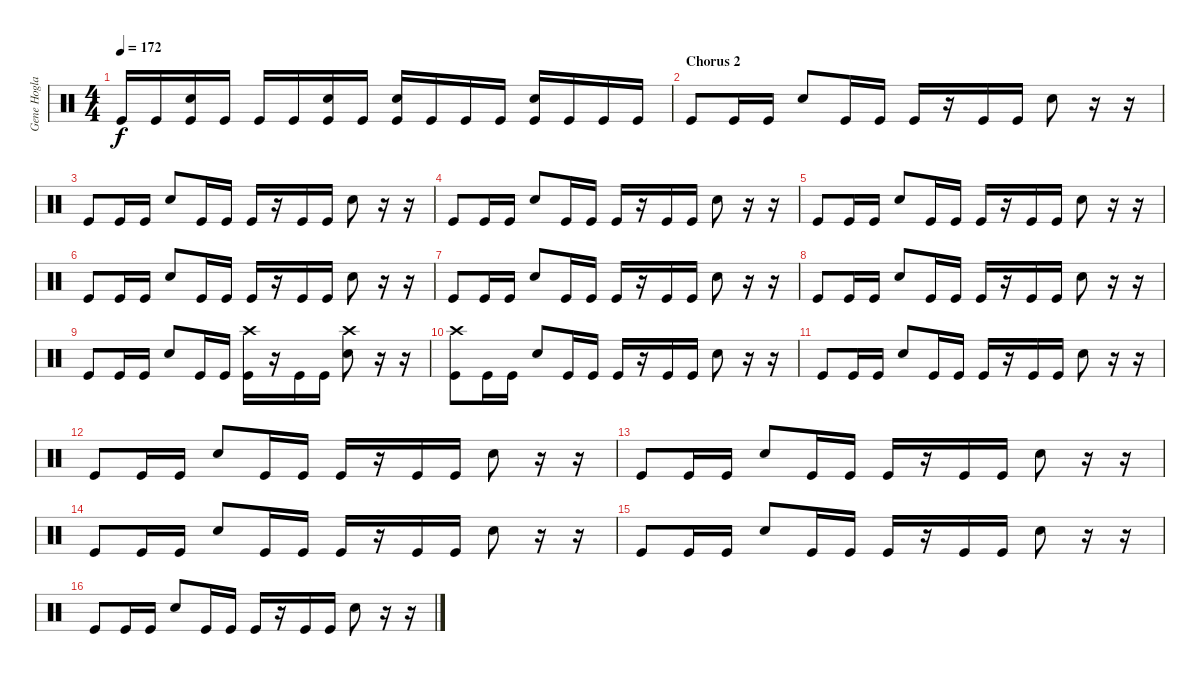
\track ("Gene Hoglan" "Gene Hogla") {instrument percussion}
\staff {score}
\articulation defaults
\ts (4 4)
\tempo 172
\clef neutral
\ks c "Kick (hit)".16{dy f} "Kick (hit)".16
("Snare (hit) 2" "Kick (hit)").16 "Kick (hit)".16 "Kick (hit)".16 "Kick (hit)".16 ("Snare (hit) 2" "Kick (hit)").16 "Kick (hit)".16 ("Snare (hit) 2" "Kick (hit)").16 "Kick (hit)".16 "Kick (hit)".16 "Kick (hit)".16 ("Snare (hit) 2" "Kick (hit)").16 "Kick (hit)".16 "Kick (hit)".16 "Kick (hit)".16 |
\section ("" "Chorus 2")
"Kick (hit)".8 "Kick (hit)".16 "Kick (hit)".16 "Snare (hit) 2".8 "Kick (hit)".16 "Kick (hit)".16 "Kick (hit)".16 r.16 "Kick (hit)".16 "Kick (hit)".16 "Snare (hit) 2".8 r.16 r.16 |
"Kick (hit)".8 "Kick (hit)".16 "Kick (hit)".16 "Snare (hit) 2".8 "Kick (hit)".16 "Kick (hit)".16 "Kick (hit)".16 r.16 "Kick (hit)".16 "Kick (hit)".16 "Snare (hit) 2".8 r.16 r.16 |
"Kick (hit)".8 "Kick (hit)".16 "Kick (hit)".16 "Snare (hit) 2".8 "Kick (hit)".16 "Kick (hit)".16 "Kick (hit)".16 r.16 "Kick (hit)".16 "Kick (hit)".16 "Snare (hit) 2".8 r.16 r.16 |
"Kick (hit)".8 "Kick (hit)".16 "Kick (hit)".16 "Snare (hit) 2".8 "Kick (hit)".16 "Kick (hit)".16 "Kick (hit)".16 r.16 "Kick (hit)".16 "Kick (hit)".16 "Snare (hit) 2".8 r.16 r.16 |
"Kick (hit)".8 "Kick (hit)".16 "Kick (hit)".16 "Snare (hit) 2".8 "Kick (hit)".16 "Kick (hit)".16 "Kick (hit)".16 r.16 "Kick (hit)".16 "Kick (hit)".16 "Snare (hit) 2".8 r.16 r.16 |
"Kick (hit)".8 "Kick (hit)".16 "Kick (hit)".16 "Snare (hit) 2".8 "Kick (hit)".16 "Kick (hit)".16 "Kick (hit)".16 r.16 "Kick (hit)".16 "Kick (hit)".16 "Snare (hit) 2".8 r.16 r.16 |
"Kick (hit)".8 "Kick (hit)".16 "Kick (hit)".16 "Snare (hit) 2".8 "Kick (hit)".16 "Kick (hit)".16 "Kick (hit)".16 r.16 "Kick (hit)".16 "Kick (hit)".16 "Snare (hit) 2".8 r.16 r.16 |
"Kick (hit)".8 "Kick (hit)".16 "Kick (hit)".16 "Snare (hit) 2".8 "Kick (hit)".16 "Kick (hit)".16 ("Crash high (hit)" "Kick (hit)").16 r.16 "Kick (hit)".16 "Kick (hit)".16 ("Crash high (hit)" "Snare (hit) 2").8 r.16 r.16 |
("Crash high (hit)" "Kick (hit)").8 "Kick (hit)".16 "Kick (hit)".16 "Snare (hit) 2".8 "Kick (hit)".16 "Kick (hit)".16 "Kick (hit)".16 r.16 "Kick (hit)".16 "Kick (hit)".16 "Snare (hit) 2".8 r.16 r.16 |
"Kick (hit)".8 "Kick (hit)".16 "Kick (hit)".16 "Snare (hit) 2".8 "Kick (hit)".16 "Kick (hit)".16 "Kick (hit)".16 r.16 "Kick (hit)".16 "Kick (hit)".16 "Snare (hit) 2".8 r.16 r.16 |
"Kick (hit)".8 "Kick (hit)".16 "Kick (hit)".16 "Snare (hit) 2".8 "Kick (hit)".16 "Kick (hit)".16 "Kick (hit)".16 r.16 "Kick (hit)".16 "Kick (hit)".16 "Snare (hit) 2".8 r.16 r.16 |
"Kick (hit)".8 "Kick (hit)".16 "Kick (hit)".16 "Snare (hit) 2".8 "Kick (hit)".16 "Kick (hit)".16 "Kick (hit)".16 r.16 "Kick (hit)".16 "Kick (hit)".16 "Snare (hit) 2".8 r.16 r.16 |
"Kick (hit)".8 "Kick (hit)".16 "Kick (hit)".16 "Snare (hit) 2".8 "Kick (hit)".16 "Kick (hit)".16 "Kick (hit)".16 r.16 "Kick (hit)".16 "Kick (hit)".16 "Snare (hit) 2".8 r.16 r.16 |
"Kick (hit)".8 "Kick (hit)".16 "Kick (hit)".16 "Snare (hit) 2".8 "Kick (hit)".16 "Kick (hit)".16 "Kick (hit)".16 r.16 "Kick (hit)".16 "Kick (hit)".16 "Snare (hit) 2".8 r.16 r.16 |
"Kick (hit)".8 "Kick (hit)".16 "Kick (hit)".16 "Snare (hit) 2".8 "Kick (hit)".16 "Kick (hit)".16 "Kick (hit)".16 r.16 "Kick (hit)".16 "Kick (hit)".16 "Snare (hit) 2".8 r.16 r.16
